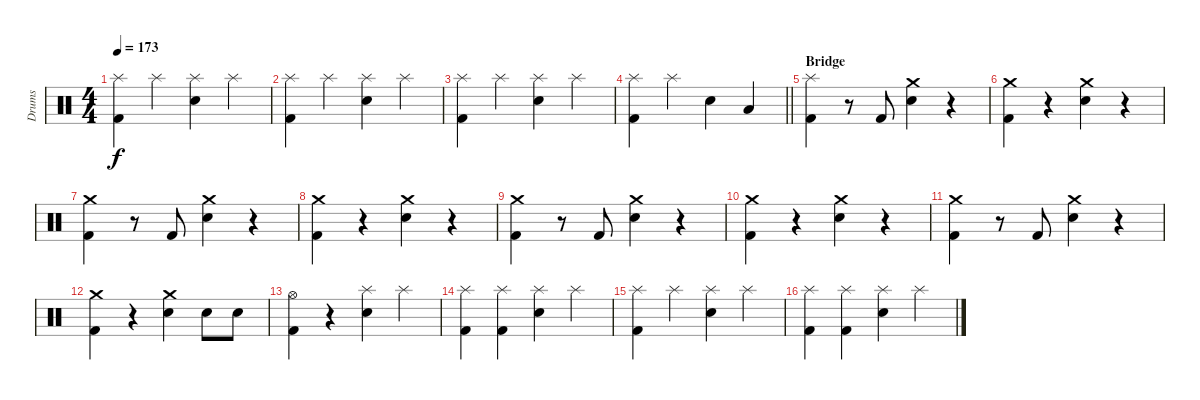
\track ("Drums" "Drums") {instrument percussion}
\staff {score}
\articulation defaults
\ts (4 4)
\tempo 173
\clef neutral
\ks c
("Splash (hit)" "Kick (hit) 2").4{dy f} "Splash (hit)".4 ("Splash (hit)" "Snare (hit) 2").4 "Splash (hit)".4 |
("Splash (hit)" "Kick (hit) 2").4 "Splash (hit)".4 ("Splash (hit)" "Snare (hit) 2").4 "Splash (hit)".4 |
("Splash (hit)" "Kick (hit) 2").4 "Splash (hit)".4 ("Splash (hit)" "Snare (hit) 2").4 "Splash (hit)".4 |
\barLineRight lightlight
("Splash (hit)" "Kick (hit) 2").4 "Splash (hit)".4 "Snare (hit) 2".4 "Low Tom (hit)".4 |
\section ("" "Bridge")
("Splash (hit)" "Kick (hit) 2").4 r.8 "Kick (hit) 2".8 ("Crash medium (hit)" "Snare (hit) 2").4 r.4 |
("Crash medium (hit)" "Kick (hit) 2").4 r.4 ("Crash medium (hit)" "Snare (hit) 2").4 r.4 |
("Crash medium (hit)" "Kick (hit) 2").4 r.8 "Kick (hit) 2".8 ("Crash medium (hit)" "Snare (hit) 2").4 r.4 |
("Crash medium (hit)" "Kick (hit) 2").4 r.4 ("Crash medium (hit)" "Snare (hit) 2").4 r.4 |
("Crash medium (hit)" "Kick (hit) 2").4 r.8 "Kick (hit) 2".8 ("Crash medium (hit)" "Snare (hit) 2").4 r.4 |
("Crash medium (hit)" "Kick (hit) 2").4 r.4 ("Crash medium (hit)" "Snare (hit) 2").4 r.4 |
("Crash medium (hit)" "Kick (hit) 2").4 r.8 "Kick (hit) 2".8 ("Crash medium (hit)" "Snare (hit) 2").4 r.4 |
("Crash medium (hit)" "Kick (hit) 2").4 r.4 ("Crash medium (hit)" "Snare (hit) 2").4 "Snare (hit) 2".8 "Snare (hit) 2".8 |
("Hi-Hat (open)" "Kick (hit) 2").4 r.4 ("Splash (hit)" "Snare (hit) 2").4 "Splash (hit)".4 |
("Splash (hit)" "Kick (hit) 2").4 ("Splash (hit)" "Kick (hit) 2").4 ("Splash (hit)" "Snare (hit) 2").4 "Splash (hit)".4 |
("Splash (hit)" "Kick (hit) 2").4 "Splash (hit)".4 ("Splash (hit)" "Snare (hit) 2").4 "Splash (hit)".4 |
("Splash (hit)" "Kick (hit) 2").4 ("Splash (hit)" "Kick (hit) 2").4 ("Splash (hit)" "Snare (hit) 2").4 "Splash (hit)".4
